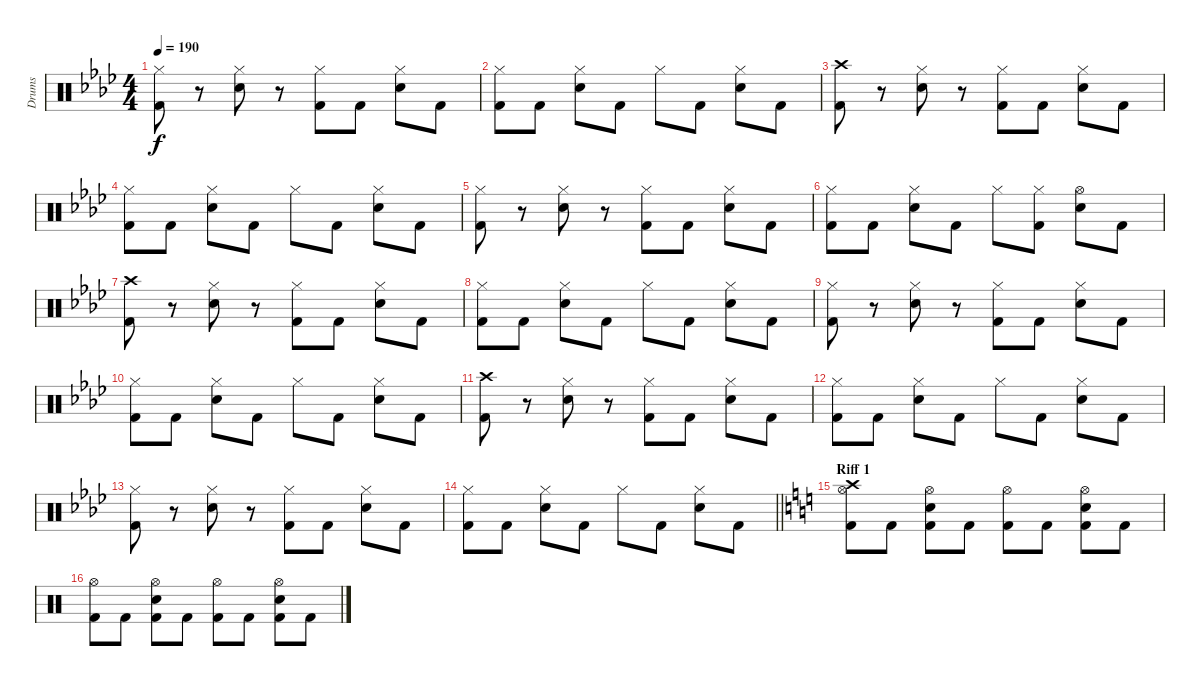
\track ("Drums" "Drums") {instrument percussion}
\staff {score}
\articulation defaults
\ts (4 4)
\tempo 190
\clef neutral
\ks fminor
("Hi-Hat (closed)" "Kick (hit) 2").8{dy f} r.8 ("Hi-Hat (closed)" "Electric Snare (hit)").8 r.8 ("Hi-Hat (closed)" "Kick (hit) 2").8 "Kick (hit) 2".8 ("Hi-Hat (closed)" "Electric Snare (hit)").8 "Kick (hit) 2".8 |
("Hi-Hat (closed)" "Kick (hit) 2").8 "Kick (hit) 2".8 ("Hi-Hat (closed)" "Electric Snare (hit)").8 "Kick (hit) 2".8 "Hi-Hat (closed)".8 "Kick (hit) 2".8 ("Hi-Hat (closed)" "Electric Snare (hit)").8 "Kick (hit) 2".8 |
("Crash high (hit)" "Kick (hit) 2").8 r.8 ("Hi-Hat (closed)" "Electric Snare (hit)").8 r.8 ("Hi-Hat (closed)" "Kick (hit) 2").8 "Kick (hit) 2".8 ("Hi-Hat (closed)" "Electric Snare (hit)").8 "Kick (hit) 2".8 |
("Hi-Hat (closed)" "Kick (hit) 2").8 "Kick (hit) 2".8 ("Hi-Hat (closed)" "Electric Snare (hit)").8 "Kick (hit) 2".8 "Hi-Hat (closed)".8 "Kick (hit) 2".8 ("Hi-Hat (closed)" "Electric Snare (hit)").8 "Kick (hit) 2".8 |
("Hi-Hat (closed)" "Kick (hit) 2").8 r.8 ("Hi-Hat (closed)" "Electric Snare (hit)").8 r.8 ("Hi-Hat (closed)" "Kick (hit) 2").8 "Kick (hit) 2".8 ("Hi-Hat (closed)" "Electric Snare (hit)").8 "Kick (hit) 2".8 |
("Hi-Hat (closed)" "Kick (hit) 2").8 "Kick (hit) 2".8 ("Hi-Hat (closed)" "Electric Snare (hit)").8 "Kick (hit) 2".8 "Hi-Hat (closed)".8 ("Hi-Hat (closed)" "Kick (hit) 2").8 ("Hi-Hat (open)" "Electric Snare (hit)").8 "Kick (hit) 2".8 |
("Crash high (hit)" "Kick (hit) 2").8 r.8 ("Hi-Hat (closed)" "Electric Snare (hit)").8 r.8 ("Hi-Hat (closed)" "Kick (hit) 2").8 "Kick (hit) 2".8 ("Hi-Hat (closed)" "Electric Snare (hit)").8 "Kick (hit) 2".8 |
("Hi-Hat (closed)" "Kick (hit) 2").8 "Kick (hit) 2".8 ("Hi-Hat (closed)" "Electric Snare (hit)").8 "Kick (hit) 2".8 "Hi-Hat (closed)".8 "Kick (hit) 2".8 ("Hi-Hat (closed)" "Electric Snare (hit)").8 "Kick (hit) 2".8 |
("Hi-Hat (closed)" "Kick (hit) 2").8 r.8 ("Hi-Hat (closed)" "Electric Snare (hit)").8 r.8 ("Hi-Hat (closed)" "Kick (hit) 2").8 "Kick (hit) 2".8 ("Hi-Hat (closed)" "Electric Snare (hit)").8 "Kick (hit) 2".8 |
("Hi-Hat (closed)" "Kick (hit) 2").8 "Kick (hit) 2".8 ("Hi-Hat (closed)" "Electric Snare (hit)").8 "Kick (hit) 2".8 "Hi-Hat (closed)".8 "Kick (hit) 2".8 ("Hi-Hat (closed)" "Electric Snare (hit)").8 "Kick (hit) 2".8 |
("Crash high (hit)" "Kick (hit) 2").8 r.8 ("Hi-Hat (closed)" "Electric Snare (hit)").8 r.8 ("Hi-Hat (closed)" "Kick (hit) 2").8 "Kick (hit) 2".8 ("Hi-Hat (closed)" "Electric Snare (hit)").8 "Kick (hit) 2".8 |
("Hi-Hat (closed)" "Kick (hit) 2").8 "Kick (hit) 2".8 ("Hi-Hat (closed)" "Electric Snare (hit)").8 "Kick (hit) 2".8 "Hi-Hat (closed)".8 "Kick (hit) 2".8 ("Hi-Hat (closed)" "Electric Snare (hit)").8 "Kick (hit) 2".8 |
("Hi-Hat (closed)" "Kick (hit) 2").8 r.8 ("Hi-Hat (closed)" "Electric Snare (hit)").8 r.8 ("Hi-Hat (closed)" "Kick (hit) 2").8 "Kick (hit) 2".8 ("Hi-Hat (closed)" "Electric Snare (hit)").8 "Kick (hit) 2".8 |
\barLineRight lightlight
("Hi-Hat (closed)" "Kick (hit) 2").8 "Kick (hit) 2".8 ("Hi-Hat (closed)" "Electric Snare (hit)").8 "Kick (hit) 2".8 "Hi-Hat (closed)".8 "Kick (hit) 2".8 ("Hi-Hat (closed)" "Electric Snare (hit)").8 "Kick (hit) 2".8 |
\section ("" "Riff 1")
\ks aminor
("Crash high (hit)" "Hi-Hat (open)" "Kick (hit) 2").8 "Kick (hit) 2".8 ("Hi-Hat (open)" "Electric Snare (hit)" "Kick (hit) 2").8 "Kick (hit) 2".8 ("Hi-Hat (open)" "Kick (hit) 2").8 "Kick (hit) 2".8 ("Hi-Hat (open)" "Electric Snare (hit)" "Kick (hit) 2").8 "Kick (hit) 2".8 |
("Hi-Hat (open)" "Kick (hit) 2").8 "Kick (hit) 2".8 ("Hi-Hat (open)" "Electric Snare (hit)" "Kick (hit) 2").8 "Kick (hit) 2".8 ("Hi-Hat (open)" "Kick (hit) 2").8 "Kick (hit) 2".8 ("Hi-Hat (open)" "Electric Snare (hit)" "Kick (hit) 2").8 "Kick (hit) 2".8
